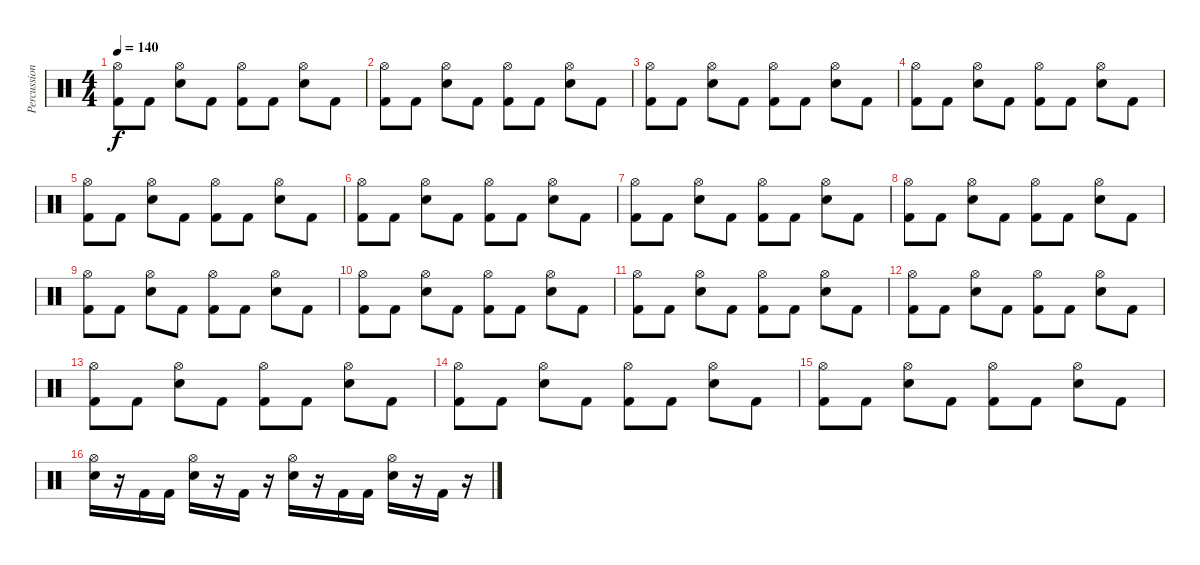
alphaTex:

\track ("Percussion" "Percussion") {instrument percussion}
\staff {score}
\articulation defaults
\ts (4 4)
\tempo 140
\clef neutral
\ks c
("Hi-Hat (open)" "Kick (hit) 2").8{dy f} "Kick (hit) 2".8 ("Hi-Hat (open)" "Snare (hit) 2").8 "Kick (hit) 2".8 ("Hi-Hat (open)" "Kick (hit) 2").8 "Kick (hit) 2".8 ("Hi-Hat (open)" "Snare (hit) 2").8 "Kick (hit) 2".8 |
("Hi-Hat (open)" "Kick (hit) 2").8 "Kick (hit) 2".8 ("Hi-Hat (open)" "Snare (hit) 2").8 "Kick (hit) 2".8 ("Hi-Hat (open)" "Kick (hit) 2").8 "Kick (hit) 2".8 ("Hi-Hat (open)" "Snare (hit) 2").8 "Kick (hit) 2".8 |
("Hi-Hat (open)" "Kick (hit) 2").8 "Kick (hit) 2".8 ("Hi-Hat (open)" "Snare (hit) 2").8 "Kick (hit) 2".8 ("Hi-Hat (open)" "Kick (hit) 2").8 "Kick (hit) 2".8 ("Hi-Hat (open)" "Snare (hit) 2").8 "Kick (hit) 2".8 |
("Hi-Hat (open)" "Kick (hit) 2").8 "Kick (hit) 2".8 ("Hi-Hat (open)" "Snare (hit) 2").8 "Kick (hit) 2".8 ("Hi-Hat (open)" "Kick (hit) 2").8 "Kick (hit) 2".8 ("Hi-Hat (open)" "Snare (hit) 2").8 "Kick (hit) 2".8 |
("Hi-Hat (open)" "Kick (hit) 2").8 "Kick (hit) 2".8 ("Hi-Hat (open)" "Snare (hit) 2").8 "Kick (hit) 2".8 ("Hi-Hat (open)" "Kick (hit) 2").8 "Kick (hit) 2".8 ("Hi-Hat (open)" "Snare (hit) 2").8 "Kick (hit) 2".8 |
("Hi-Hat (open)" "Kick (hit) 2").8 "Kick (hit) 2".8 ("Hi-Hat (open)" "Snare (hit) 2").8 "Kick (hit) 2".8 ("Hi-Hat (open)" "Kick (hit) 2").8 "Kick (hit) 2".8 ("Hi-Hat (open)" "Snare (hit) 2").8 "Kick (hit) 2".8 |
("Hi-Hat (open)" "Kick (hit) 2").8 "Kick (hit) 2".8 ("Hi-Hat (open)" "Snare (hit) 2").8 "Kick (hit) 2".8 ("Hi-Hat (open)" "Kick (hit) 2").8 "Kick (hit) 2".8 ("Hi-Hat (open)" "Snare (hit) 2").8 "Kick (hit) 2".8 |
("Hi-Hat (open)" "Kick (hit) 2").8 "Kick (hit) 2".8 ("Hi-Hat (open)" "Snare (hit) 2").8 "Kick (hit) 2".8 ("Hi-Hat (open)" "Kick (hit) 2").8 "Kick (hit) 2".8 ("Hi-Hat (open)" "Snare (hit) 2").8 "Kick (hit) 2".8 |
("Hi-Hat (open)" "Kick (hit) 2").8 "Kick (hit) 2".8 ("Hi-Hat (open)" "Snare (hit) 2").8 "Kick (hit) 2".8 ("Hi-Hat (open)" "Kick (hit) 2").8 "Kick (hit) 2".8 ("Hi-Hat (open)" "Snare (hit) 2").8 "Kick (hit) 2".8 |
("Hi-Hat (open)" "Kick (hit) 2").8 "Kick (hit) 2".8 ("Hi-Hat (open)" "Snare (hit) 2").8 "Kick (hit) 2".8 ("Hi-Hat (open)" "Kick (hit) 2").8 "Kick (hit) 2".8 ("Hi-Hat (open)" "Snare (hit) 2").8 "Kick (hit) 2".8 |
("Hi-Hat (open)" "Kick (hit) 2").8 "Kick (hit) 2".8 ("Hi-Hat (open)" "Snare (hit) 2").8 "Kick (hit) 2".8 ("Hi-Hat (open)" "Kick (hit) 2").8 "Kick (hit) 2".8 ("Hi-Hat (open)" "Snare (hit) 2").8 "Kick (hit) 2".8 |
("Hi-Hat (open)" "Kick (hit) 2").8 "Kick (hit) 2".8 ("Hi-Hat (open)" "Snare (hit) 2").8 "Kick (hit) 2".8 ("Hi-Hat (open)" "Kick (hit) 2").8 "Kick (hit) 2".8 ("Hi-Hat (open)" "Snare (hit) 2").8 "Kick (hit) 2".8 |
("Hi-Hat (open)" "Kick (hit) 2").8 "Kick (hit) 2".8 ("Hi-Hat (open)" "Snare (hit) 2").8 "Kick (hit) 2".8 ("Hi-Hat (open)" "Kick (hit) 2").8 "Kick (hit) 2".8 ("Hi-Hat (open)" "Snare (hit) 2").8 "Kick (hit) 2".8 |
("Hi-Hat (open)" "Kick (hit) 2").8 "Kick (hit) 2".8 ("Hi-Hat (open)" "Snare (hit) 2").8 "Kick (hit) 2".8 ("Hi-Hat (open)" "Kick (hit) 2").8 "Kick (hit) 2".8 ("Hi-Hat (open)" "Snare (hit) 2").8 "Kick (hit) 2".8 |
("Hi-Hat (open)" "Kick (hit) 2").8 "Kick (hit) 2".8 ("Hi-Hat (open)" "Snare (hit) 2").8 "Kick (hit) 2".8 ("Hi-Hat (open)" "Kick (hit) 2").8 "Kick (hit) 2".8 ("Hi-Hat (open)" "Snare (hit) 2").8 "Kick (hit) 2".8 |
("Hi-Hat (open)" "Snare (hit) 2").16 r.16 "Kick (hit) 2".16 "Kick (hit) 2".16 ("Hi-Hat (open)" "Snare (hit) 2").16 r.16 "Kick (hit) 2".16 r.16 ("Hi-Hat (open)" "Snare (hit) 2").16 r.16 "Kick (hit) 2".16 "Kick (hit) 2".16 ("Hi-Hat (open)" "Snare (hit) 2").16 r.16 "Kick (hit) 2".16 r.16
